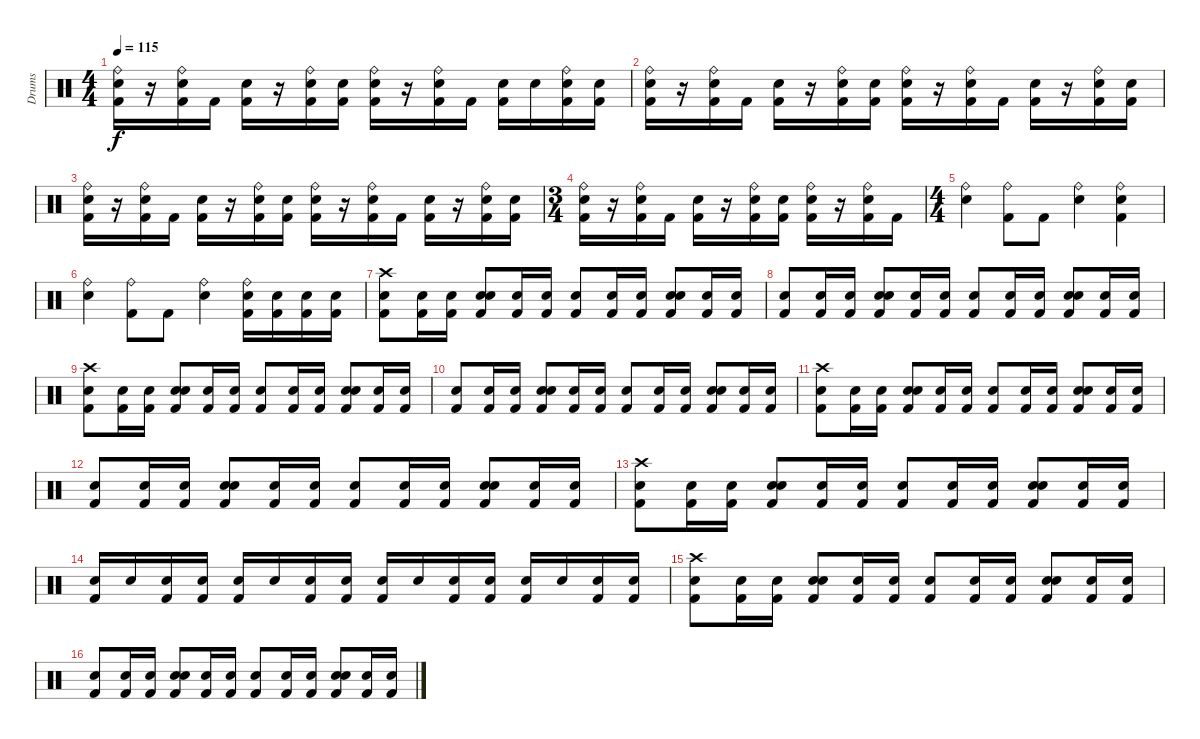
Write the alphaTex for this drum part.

\track ("Drums" "Drums") {instrument percussion}
\staff {score}
\articulation defaults
\ts (4 4)
\tempo 115
\clef neutral
\ks c
("Ride (bell)" "Snare (hit) 2" "Kick (hit) 2").16{dy f} r.16 ("Ride (bell)" "Snare (hit) 2" "Kick (hit) 2").16 "Kick (hit) 2".16 ("Electric Snare (hit)" "Kick (hit) 2").16 r.16 ("Ride (bell)" "Snare (hit) 2" "Kick (hit) 2").16 ("Snare (hit) 2" "Kick (hit) 2").16 ("Ride (bell)" "Snare (hit) 2" "Kick (hit) 2").16 r.16 ("Ride (bell)" "Snare (hit) 2" "Kick (hit) 2").16 "Kick (hit) 2".16 ("Electric Snare (hit)" "Kick (hit) 2").16 "Electric Snare (hit)".16 ("Ride (bell)" "Electric Snare (hit)" "Kick (hit) 2").16 ("Electric Snare (hit)" "Kick (hit) 2").16 |
("Ride (bell)" "Snare (hit) 2" "Kick (hit) 2").16 r.16 ("Ride (bell)" "Snare (hit) 2" "Kick (hit) 2").16 "Kick (hit) 2".16 ("Electric Snare (hit)" "Kick (hit) 2").16 r.16 ("Ride (bell)" "Snare (hit) 2" "Kick (hit) 2").16 ("Snare (hit) 2" "Kick (hit) 2").16 ("Ride (bell)" "Snare (hit) 2" "Kick (hit) 2").16 r.16 ("Ride (bell)" "Snare (hit) 2" "Kick (hit) 2").16 "Kick (hit) 2".16 ("Electric Snare (hit)" "Kick (hit) 2").16 r.16 ("Ride (bell)" "Snare (hit) 2" "Kick (hit) 2").16 ("Snare (hit) 2" "Kick (hit) 2").16 |
("Ride (bell)" "Snare (hit) 2" "Kick (hit) 2").16 r.16 ("Ride (bell)" "Snare (hit) 2" "Kick (hit) 2").16 "Kick (hit) 2".16 ("Electric Snare (hit)" "Kick (hit) 2").16 r.16 ("Ride (bell)" "Snare (hit) 2" "Kick (hit) 2").16 ("Snare (hit) 2" "Kick (hit) 2").16 ("Ride (bell)" "Snare (hit) 2" "Kick (hit) 2").16 r.16 ("Ride (bell)" "Snare (hit) 2" "Kick (hit) 2").16 "Kick (hit) 2".16 ("Electric Snare (hit)" "Kick (hit) 2").16 r.16 ("Ride (bell)" "Snare (hit) 2" "Kick (hit) 2").16 ("Snare (hit) 2" "Kick (hit) 2").16 |
\ts (3 4)
("Ride (bell)" "Snare (hit) 2" "Kick (hit) 2").16 r.16 ("Ride (bell)" "Snare (hit) 2" "Kick (hit) 2").16 "Kick (hit) 2".16 ("Electric Snare (hit)" "Kick (hit) 2").16 r.16 ("Ride (bell)" "Snare (hit) 2" "Kick (hit) 2").16 ("Snare (hit) 2" "Kick (hit) 2").16 ("Ride (bell)" "Snare (hit) 2" "Kick (hit) 2").16 r.16 ("Ride (bell)" "Snare (hit) 2" "Kick (hit) 2").16 "Kick (hit) 2".16 |
\ts (4 4)
("Ride (bell)" "Snare (hit) 2").4 ("Ride (bell)" "Kick (hit) 2").8 "Kick (hit) 2".8 ("Ride (bell)" "Electric Snare (hit)").4 ("Ride (bell)" "Kick (hit) 2" "Snare (hit) 2").4 |
("Ride (bell)" "Snare (hit) 2").4 ("Ride (bell)" "Kick (hit) 2").8 "Kick (hit) 2".8 ("Ride (bell)" "Electric Snare (hit)").4 ("Ride (bell)" "Kick (hit) 2" "Snare (hit) 2").16 ("Kick (hit) 2" "Snare (hit) 2").16 ("Kick (hit) 2" "Snare (hit) 2").16 ("Kick (hit) 2" "Snare (hit) 2").16 |
("Crash high (hit)" "Kick (hit) 2" "Snare (hit) 2").8 ("Kick (hit) 2" "Snare (hit) 2").16 ("Kick (hit) 2" "Snare (hit) 2").16 ("Electric Snare (hit)" "Kick (hit) 2" "Snare (hit) 2").8 ("Kick (hit) 2" "Snare (hit) 2").16 ("Kick (hit) 2" "Snare (hit) 2").16 ("Kick (hit) 2" "Snare (hit) 2").8 ("Kick (hit) 2" "Snare (hit) 2").16 ("Kick (hit) 2" "Snare (hit) 2").16 ("Electric Snare (hit)" "Kick (hit) 2" "Snare (hit) 2").8 ("Kick (hit) 2" "Snare (hit) 2").16 ("Kick (hit) 2" "Snare (hit) 2").16 |
("Kick (hit) 2" "Snare (hit) 2").8 ("Kick (hit) 2" "Snare (hit) 2").16 ("Kick (hit) 2" "Snare (hit) 2").16 ("Electric Snare (hit)" "Kick (hit) 2" "Snare (hit) 2").8 ("Kick (hit) 2" "Snare (hit) 2").16 ("Kick (hit) 2" "Snare (hit) 2").16 ("Kick (hit) 2" "Snare (hit) 2").8 ("Kick (hit) 2" "Snare (hit) 2").16 ("Kick (hit) 2" "Snare (hit) 2").16 ("Electric Snare (hit)" "Kick (hit) 2" "Snare (hit) 2").8 ("Kick (hit) 2" "Snare (hit) 2").16 ("Kick (hit) 2" "Snare (hit) 2").16 |
("Crash high (hit)" "Kick (hit) 2" "Snare (hit) 2").8 ("Kick (hit) 2" "Snare (hit) 2").16 ("Kick (hit) 2" "Snare (hit) 2").16 ("Electric Snare (hit)" "Kick (hit) 2" "Snare (hit) 2").8 ("Kick (hit) 2" "Snare (hit) 2").16 ("Kick (hit) 2" "Snare (hit) 2").16 ("Kick (hit) 2" "Snare (hit) 2").8 ("Kick (hit) 2" "Snare (hit) 2").16 ("Kick (hit) 2" "Snare (hit) 2").16 ("Electric Snare (hit)" "Kick (hit) 2" "Snare (hit) 2").8 ("Kick (hit) 2" "Snare (hit) 2").16 ("Kick (hit) 2" "Snare (hit) 2").16 |
("Kick (hit) 2" "Snare (hit) 2").8 ("Kick (hit) 2" "Snare (hit) 2").16 ("Kick (hit) 2" "Snare (hit) 2").16 ("Electric Snare (hit)" "Kick (hit) 2" "Snare (hit) 2").8 ("Kick (hit) 2" "Snare (hit) 2").16 ("Kick (hit) 2" "Snare (hit) 2").16 ("Kick (hit) 2" "Snare (hit) 2").8 ("Kick (hit) 2" "Snare (hit) 2").16 ("Kick (hit) 2" "Snare (hit) 2").16 ("Electric Snare (hit)" "Kick (hit) 2" "Snare (hit) 2").8 ("Kick (hit) 2" "Snare (hit) 2").16 ("Kick (hit) 2" "Snare (hit) 2").16 |
("Crash high (hit)" "Kick (hit) 2" "Snare (hit) 2").8 ("Kick (hit) 2" "Snare (hit) 2").16 ("Kick (hit) 2" "Snare (hit) 2").16 ("Electric Snare (hit)" "Kick (hit) 2" "Snare (hit) 2").8 ("Kick (hit) 2" "Snare (hit) 2").16 ("Kick (hit) 2" "Snare (hit) 2").16 ("Kick (hit) 2" "Snare (hit) 2").8 ("Kick (hit) 2" "Snare (hit) 2").16 ("Kick (hit) 2" "Snare (hit) 2").16 ("Electric Snare (hit)" "Kick (hit) 2" "Snare (hit) 2").8 ("Kick (hit) 2" "Snare (hit) 2").16 ("Kick (hit) 2" "Snare (hit) 2").16 |
("Kick (hit) 2" "Snare (hit) 2").8 ("Kick (hit) 2" "Snare (hit) 2").16 ("Kick (hit) 2" "Snare (hit) 2").16 ("Electric Snare (hit)" "Kick (hit) 2" "Snare (hit) 2").8 ("Kick (hit) 2" "Snare (hit) 2").16 ("Kick (hit) 2" "Snare (hit) 2").16 ("Kick (hit) 2" "Snare (hit) 2").8 ("Kick (hit) 2" "Snare (hit) 2").16 ("Kick (hit) 2" "Snare (hit) 2").16 ("Electric Snare (hit)" "Kick (hit) 2" "Snare (hit) 2").8 ("Kick (hit) 2" "Snare (hit) 2").16 ("Kick (hit) 2" "Snare (hit) 2").16 |
("Crash high (hit)" "Kick (hit) 2" "Snare (hit) 2").8 ("Kick (hit) 2" "Snare (hit) 2").16 ("Kick (hit) 2" "Snare (hit) 2").16 ("Electric Snare (hit)" "Kick (hit) 2" "Snare (hit) 2").8 ("Kick (hit) 2" "Snare (hit) 2").16 ("Kick (hit) 2" "Snare (hit) 2").16 ("Kick (hit) 2" "Snare (hit) 2").8 ("Kick (hit) 2" "Snare (hit) 2").16 ("Kick (hit) 2" "Snare (hit) 2").16 ("Electric Snare (hit)" "Kick (hit) 2" "Snare (hit) 2").8 ("Kick (hit) 2" "Snare (hit) 2").16 ("Kick (hit) 2" "Snare (hit) 2").16 |
("Kick (hit) 2" "Snare (hit) 2").16 "Snare (hit) 2".16 ("Kick (hit) 2" "Snare (hit) 2").16 ("Kick (hit) 2" "Snare (hit) 2").16 ("Kick (hit) 2" "Snare (hit) 2").16 "Snare (hit) 2".16 ("Kick (hit) 2" "Snare (hit) 2").16 ("Kick (hit) 2" "Snare (hit) 2").16 ("Kick (hit) 2" "Electric Snare (hit)").16 "Electric Snare (hit)".16 ("Kick (hit) 2" "Electric Snare (hit)").16 ("Kick (hit) 2" "Electric Snare (hit)").16 ("Kick (hit) 2" "Electric Snare (hit)").16 "Electric Snare (hit)".16 ("Kick (hit) 2" "Electric Snare (hit)").16 ("Kick (hit) 2" "Electric Snare (hit)").16 |
("Crash high (hit)" "Kick (hit) 2" "Snare (hit) 2").8 ("Kick (hit) 2" "Snare (hit) 2").16 ("Kick (hit) 2" "Snare (hit) 2").16 ("Electric Snare (hit)" "Kick (hit) 2" "Snare (hit) 2").8 ("Kick (hit) 2" "Snare (hit) 2").16 ("Kick (hit) 2" "Snare (hit) 2").16 ("Kick (hit) 2" "Snare (hit) 2").8 ("Kick (hit) 2" "Snare (hit) 2").16 ("Kick (hit) 2" "Snare (hit) 2").16 ("Electric Snare (hit)" "Kick (hit) 2" "Snare (hit) 2").8 ("Kick (hit) 2" "Snare (hit) 2").16 ("Kick (hit) 2" "Snare (hit) 2").16 |
("Kick (hit) 2" "Snare (hit) 2").8 ("Kick (hit) 2" "Snare (hit) 2").16 ("Kick (hit) 2" "Snare (hit) 2").16 ("Electric Snare (hit)" "Kick (hit) 2" "Snare (hit) 2").8 ("Kick (hit) 2" "Snare (hit) 2").16 ("Kick (hit) 2" "Snare (hit) 2").16 ("Kick (hit) 2" "Snare (hit) 2").8 ("Kick (hit) 2" "Snare (hit) 2").16 ("Kick (hit) 2" "Snare (hit) 2").16 ("Electric Snare (hit)" "Kick (hit) 2" "Snare (hit) 2").8 ("Kick (hit) 2" "Snare (hit) 2").16 ("Kick (hit) 2" "Snare (hit) 2").16
